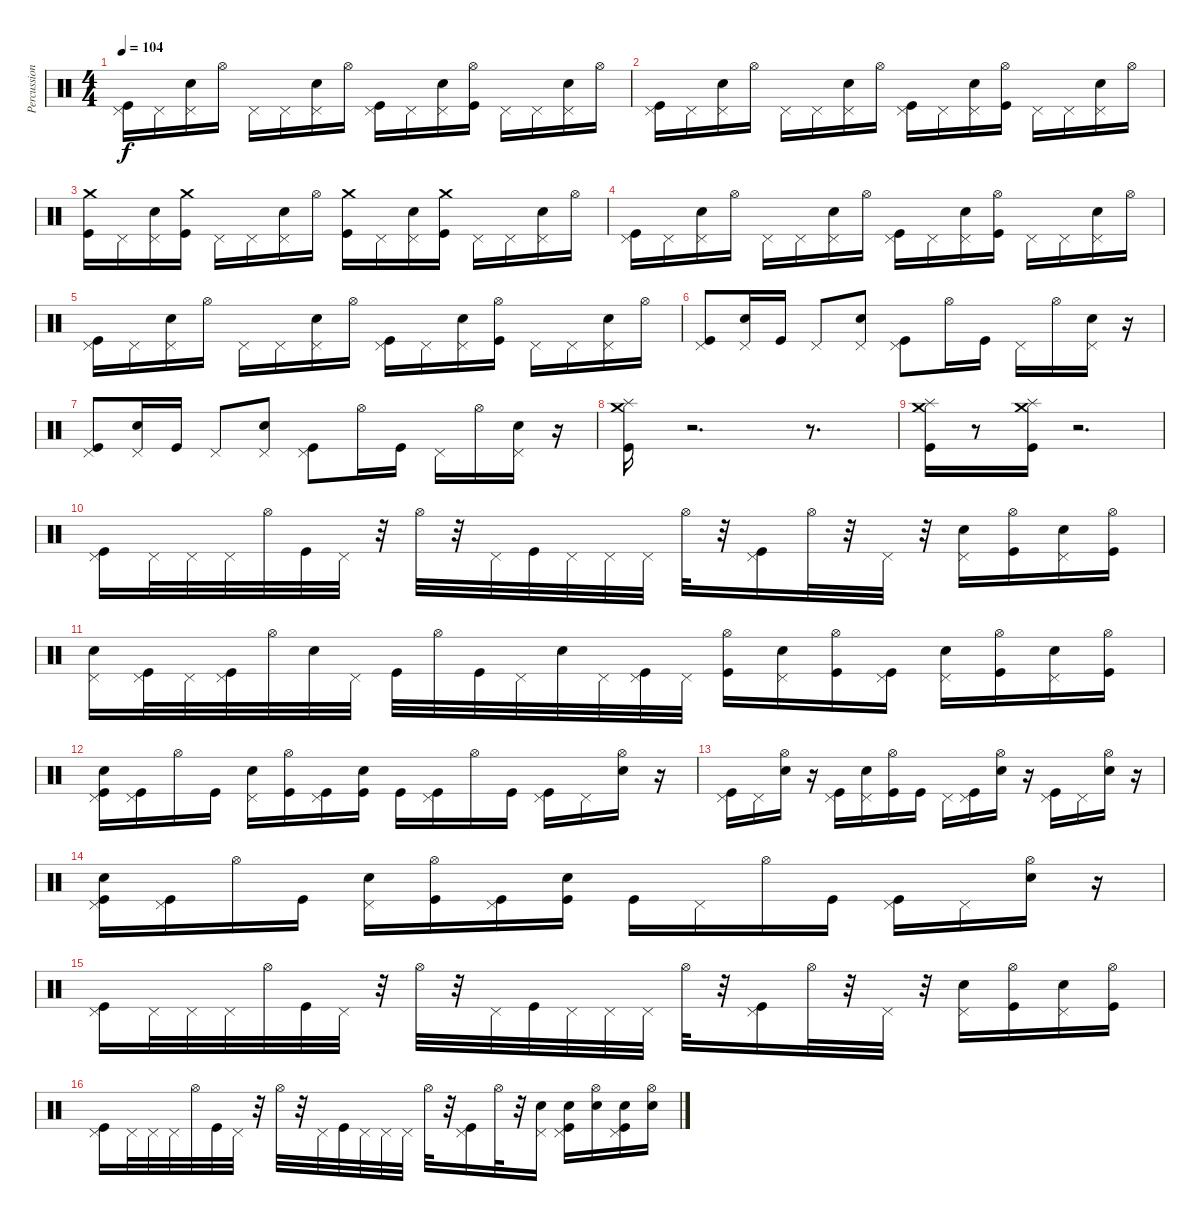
\track ("Percussion" "Percussion") {instrument percussion}
\staff {score}
\articulation defaults
\ts (4 4)
\tempo 104
\clef neutral
\ks c
("Kick (hit)" "Pedal Hi-Hat (hit)").16{dy f} "Pedal Hi-Hat (hit)".16 ("Electric Snare (hit)" "Pedal Hi-Hat (hit)").16 "Hi-Hat (open)".16 "Pedal Hi-Hat (hit)".16 "Pedal Hi-Hat (hit)".16 ("Electric Snare (hit)" "Pedal Hi-Hat (hit)").16 "Hi-Hat (open)".16 ("Kick (hit)" "Pedal Hi-Hat (hit)").16 "Pedal Hi-Hat (hit)".16 ("Electric Snare (hit)" "Pedal Hi-Hat (hit)").16 ("Kick (hit)" "Hi-Hat (open)").16 "Pedal Hi-Hat (hit)".16 "Pedal Hi-Hat (hit)".16 ("Electric Snare (hit)" "Pedal Hi-Hat (hit)").16 "Hi-Hat (open)".16 |
("Kick (hit)" "Pedal Hi-Hat (hit)").16 "Pedal Hi-Hat (hit)".16 ("Electric Snare (hit)" "Pedal Hi-Hat (hit)").16 "Hi-Hat (open)".16 "Pedal Hi-Hat (hit)".16 "Pedal Hi-Hat (hit)".16 ("Electric Snare (hit)" "Pedal Hi-Hat (hit)").16 "Hi-Hat (open)".16 ("Kick (hit)" "Pedal Hi-Hat (hit)").16 "Pedal Hi-Hat (hit)".16 ("Electric Snare (hit)" "Pedal Hi-Hat (hit)").16 ("Kick (hit)" "Hi-Hat (open)").16 "Pedal Hi-Hat (hit)".16 "Pedal Hi-Hat (hit)".16 ("Electric Snare (hit)" "Pedal Hi-Hat (hit)").16 "Hi-Hat (open)".16 |
("Kick (hit)" "Crash medium (hit)").16 "Pedal Hi-Hat (hit)".16 ("Pedal Hi-Hat (hit)" "Electric Snare (hit)").16 ("Kick (hit)" "Crash medium (hit)").16 "Pedal Hi-Hat (hit)".16 "Pedal Hi-Hat (hit)".16 ("Pedal Hi-Hat (hit)" "Electric Snare (hit)").16 "Hi-Hat (open)".16 ("Kick (hit)" "Crash medium (hit)").16 "Pedal Hi-Hat (hit)".16 ("Pedal Hi-Hat (hit)" "Electric Snare (hit)").16 ("Kick (hit)" "Crash medium (hit)").16 "Pedal Hi-Hat (hit)".16 "Pedal Hi-Hat (hit)".16 ("Pedal Hi-Hat (hit)" "Electric Snare (hit)").16 "Hi-Hat (open)".16 |
("Kick (hit)" "Pedal Hi-Hat (hit)").16 "Pedal Hi-Hat (hit)".16 ("Electric Snare (hit)" "Pedal Hi-Hat (hit)").16 "Hi-Hat (open)".16 "Pedal Hi-Hat (hit)".16 "Pedal Hi-Hat (hit)".16 ("Electric Snare (hit)" "Pedal Hi-Hat (hit)").16 "Hi-Hat (open)".16 ("Kick (hit)" "Pedal Hi-Hat (hit)").16 "Pedal Hi-Hat (hit)".16 ("Electric Snare (hit)" "Pedal Hi-Hat (hit)").16 ("Kick (hit)" "Hi-Hat (open)").16 "Pedal Hi-Hat (hit)".16 "Pedal Hi-Hat (hit)".16 ("Electric Snare (hit)" "Pedal Hi-Hat (hit)").16 "Hi-Hat (open)".16 |
("Kick (hit)" "Pedal Hi-Hat (hit)").16 "Pedal Hi-Hat (hit)".16 ("Electric Snare (hit)" "Pedal Hi-Hat (hit)").16 "Hi-Hat (open)".16 "Pedal Hi-Hat (hit)".16 "Pedal Hi-Hat (hit)".16 ("Electric Snare (hit)" "Pedal Hi-Hat (hit)").16 "Hi-Hat (open)".16 ("Kick (hit)" "Pedal Hi-Hat (hit)").16 "Pedal Hi-Hat (hit)".16 ("Electric Snare (hit)" "Pedal Hi-Hat (hit)").16 ("Kick (hit)" "Hi-Hat (open)").16 "Pedal Hi-Hat (hit)".16 "Pedal Hi-Hat (hit)".16 ("Electric Snare (hit)" "Pedal Hi-Hat (hit)").16 "Hi-Hat (open)".16 |
("Kick (hit)" "Pedal Hi-Hat (hit)").8 ("Electric Snare (hit)" "Pedal Hi-Hat (hit)").16 "Kick (hit)".16 "Pedal Hi-Hat (hit)".8 ("Electric Snare (hit)" "Pedal Hi-Hat (hit)").8 ("Kick (hit)" "Pedal Hi-Hat (hit)").8 "Hi-Hat (open)".16 "Kick (hit)".16 "Pedal Hi-Hat (hit)".16 "Hi-Hat (open)".16 ("Electric Snare (hit)" "Pedal Hi-Hat (hit)").16 r.16 |
("Kick (hit)" "Pedal Hi-Hat (hit)").8 ("Electric Snare (hit)" "Pedal Hi-Hat (hit)").16 "Kick (hit)".16 "Pedal Hi-Hat (hit)".8 ("Electric Snare (hit)" "Pedal Hi-Hat (hit)").8 ("Kick (hit)" "Pedal Hi-Hat (hit)").8 "Hi-Hat (open)".16 "Kick (hit)".16 "Pedal Hi-Hat (hit)".16 "Hi-Hat (open)".16 ("Electric Snare (hit)" "Pedal Hi-Hat (hit)").16 r.16 |
("Kick (hit)" "Splash (hit)" "Crash medium (hit)").16{volume 9 balance 16} r.2{d} r.8{d} |
("Crash medium (hit)" "Kick (hit)" "Splash (hit)").16 r.8 ("Kick (hit)" "Splash (hit)" "Crash medium (hit)").16 r.2{d} |
("Kick (hit)" "Pedal Hi-Hat (hit)").16 "Pedal Hi-Hat (hit)".32 "Pedal Hi-Hat (hit)".32 "Pedal Hi-Hat (hit)".32 "Hi-Hat (open)".32 "Kick (hit)".32 "Pedal Hi-Hat (hit)".32 r.32 "Hi-Hat (open)".32 r.32 "Pedal Hi-Hat (hit)".32 "Kick (hit)".32 "Pedal Hi-Hat (hit)".32 "Pedal Hi-Hat (hit)".32 "Pedal Hi-Hat (hit)".32 "Hi-Hat (open)".32 r.32 ("Pedal Hi-Hat (hit)" "Kick (hit)").16 "Hi-Hat (open)".32 r.32 "Pedal Hi-Hat (hit)".32 r.32 ("Pedal Hi-Hat (hit)" "Electric Snare (hit)").16 ("Hi-Hat (open)" "Kick (hit)").16 ("Pedal Hi-Hat (hit)" "Electric Snare (hit)").16 ("Hi-Hat (open)" "Kick (hit)").16 |
("Electric Snare (hit)" "Pedal Hi-Hat (hit)").16 ("Kick (hit)" "Pedal Hi-Hat (hit)").32 "Pedal Hi-Hat (hit)".32 ("Kick (hit)" "Pedal Hi-Hat (hit)").32 "Hi-Hat (open)".32 "Electric Snare (hit)".32 "Pedal Hi-Hat (hit)".32 "Kick (hit)".32 "Hi-Hat (open)".32 "Kick (hit)".32 "Pedal Hi-Hat (hit)".32 "Electric Snare (hit)".32 "Pedal Hi-Hat (hit)".32 ("Kick (hit)" "Pedal Hi-Hat (hit)").32 "Pedal Hi-Hat (hit)".32 ("Kick (hit)" "Hi-Hat (open)").16 ("Pedal Hi-Hat (hit)" "Electric Snare (hit)").16 ("Kick (hit)" "Hi-Hat (open)").16 ("Kick (hit)" "Pedal Hi-Hat (hit)").16 ("Pedal Hi-Hat (hit)" "Electric Snare (hit)").16 ("Hi-Hat (open)" "Kick (hit)").16 ("Pedal Hi-Hat (hit)" "Electric Snare (hit)").16 ("Hi-Hat (open)" "Kick (hit)").16 |
("Electric Snare (hit)" "Kick (hit)" "Pedal Hi-Hat (hit)").16 ("Kick (hit)" "Pedal Hi-Hat (hit)").16 "Hi-Hat (open)".16 "Kick (hit)".16 ("Electric Snare (hit)" "Pedal Hi-Hat (hit)").16 ("Kick (hit)" "Hi-Hat (open)").16 ("Kick (hit)" "Pedal Hi-Hat (hit)").16 ("Kick (hit)" "Electric Snare (hit)").16 "Kick (hit)".16 ("Kick (hit)" "Pedal Hi-Hat (hit)").16 "Hi-Hat (open)".16 "Kick (hit)".16 ("Kick (hit)" "Pedal Hi-Hat (hit)").16 "Pedal Hi-Hat (hit)".16 ("Electric Snare (hit)" "Hi-Hat (open)").16 r.16 |
("Pedal Hi-Hat (hit)" "Kick (hit)").16 "Pedal Hi-Hat (hit)".16 ("Hi-Hat (open)" "Electric Snare (hit)").16 r.16 ("Pedal Hi-Hat (hit)" "Kick (hit)").16 ("Pedal Hi-Hat (hit)" "Electric Snare (hit)").16 ("Hi-Hat (open)" "Kick (hit)").16 "Kick (hit)".16 "Pedal Hi-Hat (hit)".16 ("Pedal Hi-Hat (hit)" "Kick (hit)").16 ("Hi-Hat (open)" "Electric Snare (hit)").16 r.16 ("Pedal Hi-Hat (hit)" "Kick (hit)").16 "Pedal Hi-Hat (hit)".16 ("Hi-Hat (open)" "Electric Snare (hit)").16 r.16 |
("Electric Snare (hit)" "Kick (hit)" "Pedal Hi-Hat (hit)").16 ("Kick (hit)" "Pedal Hi-Hat (hit)").16 "Hi-Hat (open)".16 "Kick (hit)".16 ("Electric Snare (hit)" "Pedal Hi-Hat (hit)").16 ("Kick (hit)" "Hi-Hat (open)").16 ("Kick (hit)" "Pedal Hi-Hat (hit)").16 ("Kick (hit)" "Electric Snare (hit)").16 "Kick (hit)".16 "Pedal Hi-Hat (hit)".16 "Hi-Hat (open)".16 "Kick (hit)".16 ("Kick (hit)" "Pedal Hi-Hat (hit)").16 "Pedal Hi-Hat (hit)".16 ("Electric Snare (hit)" "Hi-Hat (open)").16 r.16 |
("Kick (hit)" "Pedal Hi-Hat (hit)").16 "Pedal Hi-Hat (hit)".32 "Pedal Hi-Hat (hit)".32 "Pedal Hi-Hat (hit)".32 "Hi-Hat (open)".32 "Kick (hit)".32 "Pedal Hi-Hat (hit)".32 r.32 "Hi-Hat (open)".32 r.32 "Pedal Hi-Hat (hit)".32 "Kick (hit)".32 "Pedal Hi-Hat (hit)".32 "Pedal Hi-Hat (hit)".32 "Pedal Hi-Hat (hit)".32 "Hi-Hat (open)".32 r.32 ("Pedal Hi-Hat (hit)" "Kick (hit)").16 "Hi-Hat (open)".32 r.32 "Pedal Hi-Hat (hit)".32 r.32 ("Pedal Hi-Hat (hit)" "Electric Snare (hit)").16 ("Hi-Hat (open)" "Kick (hit)").16 ("Pedal Hi-Hat (hit)" "Electric Snare (hit)").16 ("Hi-Hat (open)" "Kick (hit)").16 |
("Kick (hit)" "Pedal Hi-Hat (hit)").16 "Pedal Hi-Hat (hit)".32 "Pedal Hi-Hat (hit)".32 "Pedal Hi-Hat (hit)".32 "Hi-Hat (open)".32 "Kick (hit)".32 "Pedal Hi-Hat (hit)".32 r.32 "Hi-Hat (open)".32 r.32 "Pedal Hi-Hat (hit)".32 "Kick (hit)".32 "Pedal Hi-Hat (hit)".32 "Pedal Hi-Hat (hit)".32 "Pedal Hi-Hat (hit)".32 "Hi-Hat (open)".32 r.32 ("Pedal Hi-Hat (hit)" "Kick (hit)").16 "Hi-Hat (open)".32 r.32 ("Electric Snare (hit)" "Pedal Hi-Hat (hit)").16 ("Kick (hit)" "Electric Snare (hit)" "Pedal Hi-Hat (hit)").16 ("Electric Snare (hit)" "Hi-Hat (open)").16 ("Kick (hit)" "Pedal Hi-Hat (hit)" "Electric Snare (hit)").16 ("Electric Snare (hit)" "Hi-Hat (open)").16
